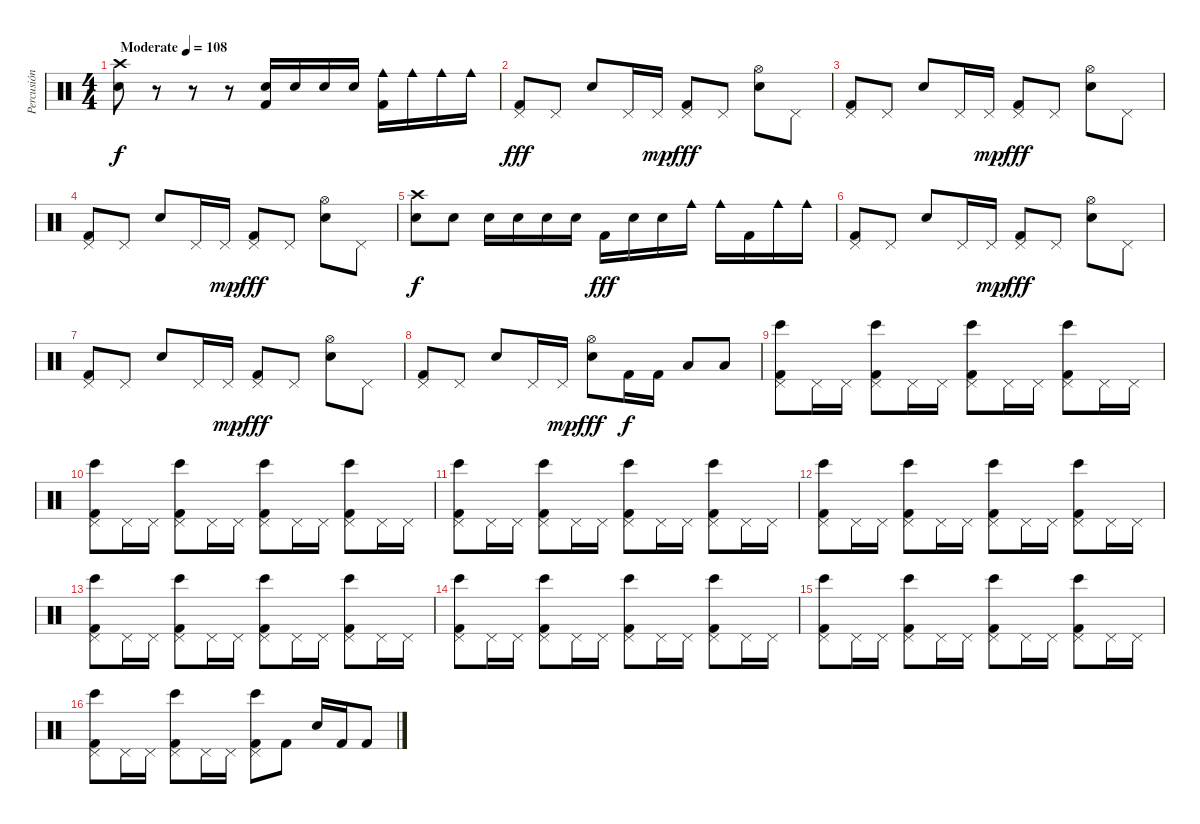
\track ("Percusión" "Percusión") {instrument percussion}
\staff {score}
\articulation defaults
\ts (4 4)
\tempo (108 "Moderate")
\clef neutral
\ks c
("Crash high (hit)" "Snare (hit) 2").8{dy f} r.8 r.8 r.8 ("Snare (hit) 2" "Kick (hit) 2").16 "Snare (hit) 2".16 "Snare (hit) 2".16 "Snare (hit) 2".16 ("Cowbell medium (hit)" "Kick (hit) 2").16 "Cowbell medium (hit)".16 "Cowbell medium (hit)".16 "Cowbell medium (hit)".16 |
("Pedal Hi-Hat (hit)" "Kick (hit) 2").8{dy fff} "Pedal Hi-Hat (hit)".8 "Snare (hit) 2".8 "Pedal Hi-Hat (hit)".16 "Pedal Hi-Hat (hit)".16{dy mp} ("Pedal Hi-Hat (hit)" "Kick (hit) 2").8{dy fff} "Pedal Hi-Hat (hit)".8 ("Snare (hit) 2" "Hi-Hat (open)").8 "Pedal Hi-Hat (hit)".8 |
("Pedal Hi-Hat (hit)" "Kick (hit) 2").8 "Pedal Hi-Hat (hit)".8 "Snare (hit) 2".8 "Pedal Hi-Hat (hit)".16 "Pedal Hi-Hat (hit)".16{dy mp} ("Pedal Hi-Hat (hit)" "Kick (hit) 2").8{dy fff} "Pedal Hi-Hat (hit)".8 ("Snare (hit) 2" "Hi-Hat (open)").8 "Pedal Hi-Hat (hit)".8 |
("Pedal Hi-Hat (hit)" "Kick (hit) 2").8 "Pedal Hi-Hat (hit)".8 "Snare (hit) 2".8 "Pedal Hi-Hat (hit)".16 "Pedal Hi-Hat (hit)".16{dy mp} ("Pedal Hi-Hat (hit)" "Kick (hit) 2").8{dy fff} "Pedal Hi-Hat (hit)".8 ("Snare (hit) 2" "Hi-Hat (open)").8 "Pedal Hi-Hat (hit)".8 |
("Crash high (hit)" "Snare (hit) 2").8{dy f} "Snare (hit) 2".8 "Snare (hit) 2".16 "Snare (hit) 2".16 "Snare (hit) 2".16 "Snare (hit) 2".16 "Kick (hit) 2".16{dy fff} "Snare (hit) 2".16 "Snare (hit) 2".16 "Cowbell medium (hit)".16 "Cowbell medium (hit)".16 "Kick (hit) 2".16 "Cowbell medium (hit)".16 "Cowbell medium (hit)".16 |
("Pedal Hi-Hat (hit)" "Kick (hit) 2").8 "Pedal Hi-Hat (hit)".8 "Snare (hit) 2".8 "Pedal Hi-Hat (hit)".16 "Pedal Hi-Hat (hit)".16{dy mp} ("Pedal Hi-Hat (hit)" "Kick (hit) 2").8{dy fff} "Pedal Hi-Hat (hit)".8 ("Snare (hit) 2" "Hi-Hat (open)").8 "Pedal Hi-Hat (hit)".8 |
("Pedal Hi-Hat (hit)" "Kick (hit) 2").8 "Pedal Hi-Hat (hit)".8 "Snare (hit) 2".8 "Pedal Hi-Hat (hit)".16 "Pedal Hi-Hat (hit)".16{dy mp} ("Pedal Hi-Hat (hit)" "Kick (hit) 2").8{dy fff} "Pedal Hi-Hat (hit)".8 ("Snare (hit) 2" "Hi-Hat (open)").8 "Pedal Hi-Hat (hit)".8 |
("Pedal Hi-Hat (hit)" "Kick (hit) 2").8 "Pedal Hi-Hat (hit)".8 "Snare (hit) 2".8 "Pedal Hi-Hat (hit)".16 "Pedal Hi-Hat (hit)".16{dy mp} ("Hi-Hat (open)" "Snare (hit) 2").8{dy fff} "Kick (hit) 2".16{dy f} "Kick (hit) 2".16 "Low Floor Tom (hit)".8 "Low Floor Tom (hit)".8 |
("Pedal Hi-Hat (hit)" "Kick (hit) 2" "Bongo High (hit)").8 "Pedal Hi-Hat (hit)".16 "Pedal Hi-Hat (hit)".16 ("Pedal Hi-Hat (hit)" "Kick (hit) 2" "Bongo High (hit)").8 "Pedal Hi-Hat (hit)".16 "Pedal Hi-Hat (hit)".16 ("Pedal Hi-Hat (hit)" "Kick (hit) 2" "Bongo High (hit)").8 "Pedal Hi-Hat (hit)".16 "Pedal Hi-Hat (hit)".16 ("Pedal Hi-Hat (hit)" "Kick (hit) 2" "Bongo High (hit)").8 "Pedal Hi-Hat (hit)".16 "Pedal Hi-Hat (hit)".16 |
("Pedal Hi-Hat (hit)" "Kick (hit) 2" "Bongo High (hit)").8 "Pedal Hi-Hat (hit)".16 "Pedal Hi-Hat (hit)".16 ("Pedal Hi-Hat (hit)" "Kick (hit) 2" "Bongo High (hit)").8 "Pedal Hi-Hat (hit)".16 "Pedal Hi-Hat (hit)".16 ("Pedal Hi-Hat (hit)" "Kick (hit) 2" "Bongo High (hit)").8 "Pedal Hi-Hat (hit)".16 "Pedal Hi-Hat (hit)".16 ("Pedal Hi-Hat (hit)" "Kick (hit) 2" "Bongo High (hit)").8 "Pedal Hi-Hat (hit)".16 "Pedal Hi-Hat (hit)".16 |
("Pedal Hi-Hat (hit)" "Kick (hit) 2" "Bongo High (hit)").8 "Pedal Hi-Hat (hit)".16 "Pedal Hi-Hat (hit)".16 ("Pedal Hi-Hat (hit)" "Kick (hit) 2" "Bongo High (hit)").8 "Pedal Hi-Hat (hit)".16 "Pedal Hi-Hat (hit)".16 ("Pedal Hi-Hat (hit)" "Kick (hit) 2" "Bongo High (hit)").8 "Pedal Hi-Hat (hit)".16 "Pedal Hi-Hat (hit)".16 ("Pedal Hi-Hat (hit)" "Kick (hit) 2" "Bongo High (hit)").8 "Pedal Hi-Hat (hit)".16 "Pedal Hi-Hat (hit)".16 |
("Pedal Hi-Hat (hit)" "Kick (hit) 2" "Bongo High (hit)").8 "Pedal Hi-Hat (hit)".16 "Pedal Hi-Hat (hit)".16 ("Pedal Hi-Hat (hit)" "Kick (hit) 2" "Bongo High (hit)").8 "Pedal Hi-Hat (hit)".16 "Pedal Hi-Hat (hit)".16 ("Pedal Hi-Hat (hit)" "Kick (hit) 2" "Bongo High (hit)").8 "Pedal Hi-Hat (hit)".16 "Pedal Hi-Hat (hit)".16 ("Pedal Hi-Hat (hit)" "Kick (hit) 2" "Bongo High (hit)").8 "Pedal Hi-Hat (hit)".16 "Pedal Hi-Hat (hit)".16 |
("Pedal Hi-Hat (hit)" "Kick (hit) 2" "Bongo High (hit)").8 "Pedal Hi-Hat (hit)".16 "Pedal Hi-Hat (hit)".16 ("Pedal Hi-Hat (hit)" "Kick (hit) 2" "Bongo High (hit)").8 "Pedal Hi-Hat (hit)".16 "Pedal Hi-Hat (hit)".16 ("Pedal Hi-Hat (hit)" "Kick (hit) 2" "Bongo High (hit)").8 "Pedal Hi-Hat (hit)".16 "Pedal Hi-Hat (hit)".16 ("Pedal Hi-Hat (hit)" "Kick (hit) 2" "Bongo High (hit)").8 "Pedal Hi-Hat (hit)".16 "Pedal Hi-Hat (hit)".16 |
("Pedal Hi-Hat (hit)" "Kick (hit) 2" "Bongo High (hit)").8 "Pedal Hi-Hat (hit)".16 "Pedal Hi-Hat (hit)".16 ("Pedal Hi-Hat (hit)" "Kick (hit) 2" "Bongo High (hit)").8 "Pedal Hi-Hat (hit)".16 "Pedal Hi-Hat (hit)".16 ("Pedal Hi-Hat (hit)" "Kick (hit) 2" "Bongo High (hit)").8 "Pedal Hi-Hat (hit)".16 "Pedal Hi-Hat (hit)".16 ("Pedal Hi-Hat (hit)" "Kick (hit) 2" "Bongo High (hit)").8 "Pedal Hi-Hat (hit)".16 "Pedal Hi-Hat (hit)".16 |
("Pedal Hi-Hat (hit)" "Kick (hit) 2" "Bongo High (hit)").8 "Pedal Hi-Hat (hit)".16 "Pedal Hi-Hat (hit)".16 ("Pedal Hi-Hat (hit)" "Kick (hit) 2" "Bongo High (hit)").8 "Pedal Hi-Hat (hit)".16 "Pedal Hi-Hat (hit)".16 ("Pedal Hi-Hat (hit)" "Kick (hit) 2" "Bongo High (hit)").8 "Pedal Hi-Hat (hit)".16 "Pedal Hi-Hat (hit)".16 ("Pedal Hi-Hat (hit)" "Kick (hit) 2" "Bongo High (hit)").8 "Pedal Hi-Hat (hit)".16 "Pedal Hi-Hat (hit)".16 |
("Pedal Hi-Hat (hit)" "Kick (hit) 2" "Bongo High (hit)").8 "Pedal Hi-Hat (hit)".16 "Pedal Hi-Hat (hit)".16 ("Pedal Hi-Hat (hit)" "Kick (hit) 2" "Bongo High (hit)").8 "Pedal Hi-Hat (hit)".16 "Pedal Hi-Hat (hit)".16 ("Pedal Hi-Hat (hit)" "Kick (hit) 2" "Bongo High (hit)").8 "Kick (hit) 2".8 "Snare (hit) 2".16 "Kick (hit) 2".16 "Kick (hit) 2".8
